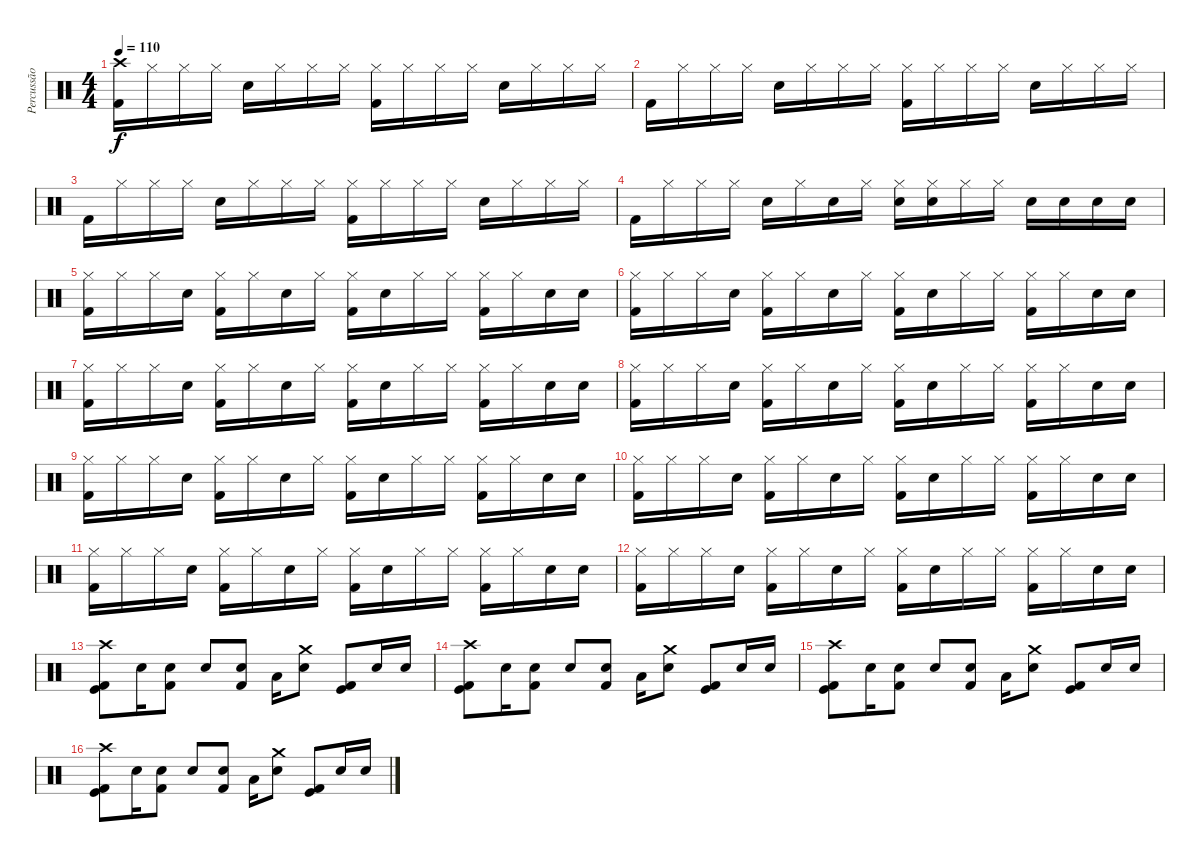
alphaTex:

\track ("Percussão" "Percussão") {instrument percussion}
\staff {score}
\articulation defaults
\ts (4 4)
\tempo 110
\clef neutral
\ks c
("Crash high (hit)" "Kick (hit) 2").16{dy f} "Hi-Hat (closed)".16 "Hi-Hat (closed)".16 "Hi-Hat (closed)".16 "Electric Snare (hit)".16 "Hi-Hat (closed)".16 "Hi-Hat (closed)".16 "Hi-Hat (closed)".16 ("Hi-Hat (closed)" "Kick (hit) 2").16 "Hi-Hat (closed)".16 "Hi-Hat (closed)".16 "Hi-Hat (closed)".16 "Electric Snare (hit)".16 "Hi-Hat (closed)".16 "Hi-Hat (closed)".16 "Hi-Hat (closed)".16 |
"Kick (hit) 2".16 "Hi-Hat (closed)".16 "Hi-Hat (closed)".16 "Hi-Hat (closed)".16 "Electric Snare (hit)".16 "Hi-Hat (closed)".16 "Hi-Hat (closed)".16 "Hi-Hat (closed)".16 ("Hi-Hat (closed)" "Kick (hit) 2").16 "Hi-Hat (closed)".16 "Hi-Hat (closed)".16 "Hi-Hat (closed)".16 "Electric Snare (hit)".16 "Hi-Hat (closed)".16 "Hi-Hat (closed)".16 "Hi-Hat (closed)".16 |
"Kick (hit) 2".16 "Hi-Hat (closed)".16 "Hi-Hat (closed)".16 "Hi-Hat (closed)".16 "Electric Snare (hit)".16 "Hi-Hat (closed)".16 "Hi-Hat (closed)".16 "Hi-Hat (closed)".16 ("Hi-Hat (closed)" "Kick (hit) 2").16 "Hi-Hat (closed)".16 "Hi-Hat (closed)".16 "Hi-Hat (closed)".16 "Electric Snare (hit)".16 "Hi-Hat (closed)".16 "Hi-Hat (closed)".16 "Hi-Hat (closed)".16 |
"Kick (hit) 2".16 "Hi-Hat (closed)".16 "Hi-Hat (closed)".16 "Hi-Hat (closed)".16 "Electric Snare (hit)".16 "Hi-Hat (closed)".16 "Electric Snare (hit)".16 "Hi-Hat (closed)".16 ("Hi-Hat (closed)" "Electric Snare (hit)").16 ("Hi-Hat (closed)" "Electric Snare (hit)").16 "Hi-Hat (closed)".16 "Hi-Hat (closed)".16 "Electric Snare (hit)".16 "Electric Snare (hit)".16 "Electric Snare (hit)".16 "Electric Snare (hit)".16 |
("Hi-Hat (closed)" "Kick (hit) 2").16 "Hi-Hat (closed)".16 "Hi-Hat (closed)".16 "Electric Snare (hit)".16 ("Hi-Hat (closed)" "Kick (hit) 2").16 "Hi-Hat (closed)".16 "Electric Snare (hit)".16 "Hi-Hat (closed)".16 ("Hi-Hat (closed)" "Kick (hit) 2").16 "Electric Snare (hit)".16 "Hi-Hat (closed)".16 "Hi-Hat (closed)".16 ("Hi-Hat (closed)" "Kick (hit) 2").16 "Hi-Hat (closed)".16 "Electric Snare (hit)".16 "Electric Snare (hit)".16 |
("Hi-Hat (closed)" "Kick (hit) 2").16 "Hi-Hat (closed)".16 "Hi-Hat (closed)".16 "Electric Snare (hit)".16 ("Hi-Hat (closed)" "Kick (hit) 2").16 "Hi-Hat (closed)".16 "Electric Snare (hit)".16 "Hi-Hat (closed)".16 ("Hi-Hat (closed)" "Kick (hit) 2").16 "Electric Snare (hit)".16 "Hi-Hat (closed)".16 "Hi-Hat (closed)".16 ("Hi-Hat (closed)" "Kick (hit) 2").16 "Hi-Hat (closed)".16 "Electric Snare (hit)".16 "Electric Snare (hit)".16 |
("Hi-Hat (closed)" "Kick (hit) 2").16 "Hi-Hat (closed)".16 "Hi-Hat (closed)".16 "Electric Snare (hit)".16 ("Hi-Hat (closed)" "Kick (hit) 2").16 "Hi-Hat (closed)".16 "Electric Snare (hit)".16 "Hi-Hat (closed)".16 ("Hi-Hat (closed)" "Kick (hit) 2").16 "Electric Snare (hit)".16 "Hi-Hat (closed)".16 "Hi-Hat (closed)".16 ("Hi-Hat (closed)" "Kick (hit) 2").16 "Hi-Hat (closed)".16 "Electric Snare (hit)".16 "Electric Snare (hit)".16 |
("Hi-Hat (closed)" "Kick (hit) 2").16 "Hi-Hat (closed)".16 "Hi-Hat (closed)".16 "Electric Snare (hit)".16 ("Hi-Hat (closed)" "Kick (hit) 2").16 "Hi-Hat (closed)".16 "Electric Snare (hit)".16 "Hi-Hat (closed)".16 ("Hi-Hat (closed)" "Kick (hit) 2").16 "Electric Snare (hit)".16 "Hi-Hat (closed)".16 "Hi-Hat (closed)".16 ("Hi-Hat (closed)" "Kick (hit) 2").16 "Hi-Hat (closed)".16 "Electric Snare (hit)".16 "Electric Snare (hit)".16 |
("Hi-Hat (closed)" "Kick (hit) 2").16 "Hi-Hat (closed)".16 "Hi-Hat (closed)".16 "Electric Snare (hit)".16 ("Hi-Hat (closed)" "Kick (hit) 2").16 "Hi-Hat (closed)".16 "Electric Snare (hit)".16 "Hi-Hat (closed)".16 ("Hi-Hat (closed)" "Kick (hit) 2").16 "Electric Snare (hit)".16 "Hi-Hat (closed)".16 "Hi-Hat (closed)".16 ("Hi-Hat (closed)" "Kick (hit) 2").16 "Hi-Hat (closed)".16 "Electric Snare (hit)".16 "Electric Snare (hit)".16 |
("Hi-Hat (closed)" "Kick (hit) 2").16 "Hi-Hat (closed)".16 "Hi-Hat (closed)".16 "Electric Snare (hit)".16 ("Hi-Hat (closed)" "Kick (hit) 2").16 "Hi-Hat (closed)".16 "Electric Snare (hit)".16 "Hi-Hat (closed)".16 ("Hi-Hat (closed)" "Kick (hit) 2").16 "Electric Snare (hit)".16 "Hi-Hat (closed)".16 "Hi-Hat (closed)".16 ("Hi-Hat (closed)" "Kick (hit) 2").16 "Hi-Hat (closed)".16 "Electric Snare (hit)".16 "Electric Snare (hit)".16 |
("Hi-Hat (closed)" "Kick (hit) 2").16 "Hi-Hat (closed)".16 "Hi-Hat (closed)".16 "Electric Snare (hit)".16 ("Hi-Hat (closed)" "Kick (hit) 2").16 "Hi-Hat (closed)".16 "Electric Snare (hit)".16 "Hi-Hat (closed)".16 ("Hi-Hat (closed)" "Kick (hit) 2").16 "Electric Snare (hit)".16 "Hi-Hat (closed)".16 "Hi-Hat (closed)".16 ("Hi-Hat (closed)" "Kick (hit) 2").16 "Hi-Hat (closed)".16 "Electric Snare (hit)".16 "Electric Snare (hit)".16 |
("Hi-Hat (closed)" "Kick (hit) 2").16 "Hi-Hat (closed)".16 "Hi-Hat (closed)".16 "Electric Snare (hit)".16 ("Hi-Hat (closed)" "Kick (hit) 2").16 "Hi-Hat (closed)".16 "Electric Snare (hit)".16 "Hi-Hat (closed)".16 ("Hi-Hat (closed)" "Kick (hit) 2").16 "Electric Snare (hit)".16 "Hi-Hat (closed)".16 "Hi-Hat (closed)".16 ("Hi-Hat (closed)" "Kick (hit) 2").16 "Hi-Hat (closed)".16 "Electric Snare (hit)".16 "Electric Snare (hit)".16 |
("Crash high (hit)" "Kick (hit)" "Kick (hit) 2").8 "Electric Snare (hit)".16 ("Snare (hit) 2" "Kick (hit) 2").8 "Snare (hit) 2".8 ("Snare (hit) 2" "Kick (hit) 2").8 "Low Tom (hit)".16 ("Crash medium (hit)" "Electric Snare (hit)").8 ("Kick (hit)" "Kick (hit) 2").8 "Electric Snare (hit)".16 "Electric Snare (hit)".16 |
("Crash high (hit)" "Kick (hit)" "Kick (hit) 2").8 "Electric Snare (hit)".16 ("Snare (hit) 2" "Kick (hit) 2").8 "Snare (hit) 2".8 ("Snare (hit) 2" "Kick (hit) 2").8 "Low Tom (hit)".16 ("Crash medium (hit)" "Electric Snare (hit)").8 ("Kick (hit)" "Kick (hit) 2").8 "Electric Snare (hit)".16 "Electric Snare (hit)".16 |
("Crash high (hit)" "Kick (hit)" "Kick (hit) 2").8 "Electric Snare (hit)".16 ("Snare (hit) 2" "Kick (hit) 2").8 "Snare (hit) 2".8 ("Snare (hit) 2" "Kick (hit) 2").8 "Low Tom (hit)".16 ("Crash medium (hit)" "Electric Snare (hit)").8 ("Kick (hit)" "Kick (hit) 2").8 "Electric Snare (hit)".16 "Electric Snare (hit)".16 |
("Crash high (hit)" "Kick (hit)" "Kick (hit) 2").8 "Electric Snare (hit)".16 ("Snare (hit) 2" "Kick (hit) 2").8 "Snare (hit) 2".8 ("Snare (hit) 2" "Kick (hit) 2").8 "Low Tom (hit)".16 ("Crash medium (hit)" "Electric Snare (hit)").8 ("Kick (hit)" "Kick (hit) 2").8 "Electric Snare (hit)".16 "Electric Snare (hit)".16
